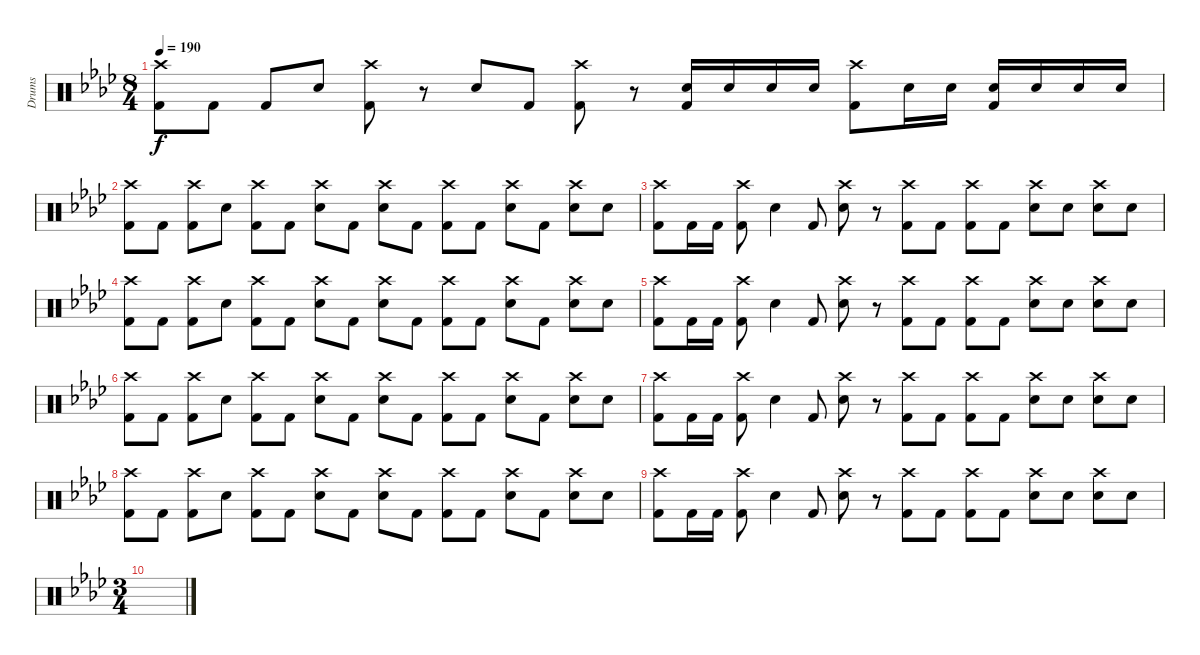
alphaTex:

\track ("Drums" "Drums") {instrument percussion}
\staff {score}
\articulation defaults
\ts (8 4)
\tempo 190
\clef neutral
\ks ab
("Crash high (hit)" "Kick (hit) 2").8{dy f} "Kick (hit) 2".8 "Kick (hit) 2".8 "Snare (hit) 2".8 ("Crash high (hit)" "Kick (hit) 2").8 r.8 "Snare (hit) 2".8 "Kick (hit) 2".8 ("Crash high (hit)" "Kick (hit) 2").8 r.8 ("Snare (hit) 2" "Kick (hit) 2").16 "Snare (hit) 2".16 "Snare (hit) 2".16 "Snare (hit) 2".16 ("Crash high (hit)" "Kick (hit) 2").8 "Snare (hit) 2".16 "Snare (hit) 2".16 ("Snare (hit) 2" "Kick (hit) 2").16 "Snare (hit) 2".16 "Snare (hit) 2".16 "Snare (hit) 2".16 |
("Crash high (hit)" "Kick (hit) 2").8 "Kick (hit) 2".8 ("Crash high (hit)" "Kick (hit) 2").8 "Snare (hit) 2".8 ("Crash high (hit)" "Kick (hit) 2").8 "Kick (hit) 2".8 ("Crash high (hit)" "Snare (hit) 2").8 "Kick (hit) 2".8 ("Crash high (hit)" "Snare (hit) 2").8 "Kick (hit) 2".8 ("Crash high (hit)" "Kick (hit) 2").8 "Kick (hit) 2".8 ("Crash high (hit)" "Snare (hit) 2").8 "Kick (hit) 2".8 ("Crash high (hit)" "Snare (hit) 2").8 "Snare (hit) 2".8 |
("Crash high (hit)" "Kick (hit) 2").8 "Kick (hit) 2".16 "Kick (hit) 2".16 ("Crash high (hit)" "Kick (hit) 2").8 "Snare (hit) 2".4 "Kick (hit) 2".8 ("Crash high (hit)" "Snare (hit) 2").8 r.8 ("Crash high (hit)" "Kick (hit) 2").8 "Kick (hit) 2".8 ("Crash high (hit)" "Kick (hit) 2").8 "Kick (hit) 2".8 ("Crash high (hit)" "Snare (hit) 2").8 "Snare (hit) 2".8 ("Crash high (hit)" "Snare (hit) 2").8 "Snare (hit) 2".8 |
("Crash high (hit)" "Kick (hit) 2").8 "Kick (hit) 2".8 ("Crash high (hit)" "Kick (hit) 2").8 "Snare (hit) 2".8 ("Crash high (hit)" "Kick (hit) 2").8 "Kick (hit) 2".8 ("Crash high (hit)" "Snare (hit) 2").8 "Kick (hit) 2".8 ("Crash high (hit)" "Snare (hit) 2").8 "Kick (hit) 2".8 ("Crash high (hit)" "Kick (hit) 2").8 "Kick (hit) 2".8 ("Crash high (hit)" "Snare (hit) 2").8 "Kick (hit) 2".8 ("Crash high (hit)" "Snare (hit) 2").8 "Snare (hit) 2".8 |
("Crash high (hit)" "Kick (hit) 2").8 "Kick (hit) 2".16 "Kick (hit) 2".16 ("Crash high (hit)" "Kick (hit) 2").8 "Snare (hit) 2".4 "Kick (hit) 2".8 ("Crash high (hit)" "Snare (hit) 2").8 r.8 ("Crash high (hit)" "Kick (hit) 2").8 "Kick (hit) 2".8 ("Crash high (hit)" "Kick (hit) 2").8 "Kick (hit) 2".8 ("Crash high (hit)" "Snare (hit) 2").8 "Snare (hit) 2".8 ("Crash high (hit)" "Snare (hit) 2").8 "Snare (hit) 2".8 |
("Crash high (hit)" "Kick (hit) 2").8 "Kick (hit) 2".8 ("Crash high (hit)" "Kick (hit) 2").8 "Snare (hit) 2".8 ("Crash high (hit)" "Kick (hit) 2").8 "Kick (hit) 2".8 ("Crash high (hit)" "Snare (hit) 2").8 "Kick (hit) 2".8 ("Crash high (hit)" "Snare (hit) 2").8 "Kick (hit) 2".8 ("Crash high (hit)" "Kick (hit) 2").8 "Kick (hit) 2".8 ("Crash high (hit)" "Snare (hit) 2").8 "Kick (hit) 2".8 ("Crash high (hit)" "Snare (hit) 2").8 "Snare (hit) 2".8 |
("Crash high (hit)" "Kick (hit) 2").8 "Kick (hit) 2".16 "Kick (hit) 2".16 ("Crash high (hit)" "Kick (hit) 2").8 "Snare (hit) 2".4 "Kick (hit) 2".8 ("Crash high (hit)" "Snare (hit) 2").8 r.8 ("Crash high (hit)" "Kick (hit) 2").8 "Kick (hit) 2".8 ("Crash high (hit)" "Kick (hit) 2").8 "Kick (hit) 2".8 ("Crash high (hit)" "Snare (hit) 2").8 "Snare (hit) 2".8 ("Crash high (hit)" "Snare (hit) 2").8 "Snare (hit) 2".8 |
("Crash high (hit)" "Kick (hit) 2").8 "Kick (hit) 2".8 ("Crash high (hit)" "Kick (hit) 2").8 "Snare (hit) 2".8 ("Crash high (hit)" "Kick (hit) 2").8 "Kick (hit) 2".8 ("Crash high (hit)" "Snare (hit) 2").8 "Kick (hit) 2".8 ("Crash high (hit)" "Snare (hit) 2").8 "Kick (hit) 2".8 ("Crash high (hit)" "Kick (hit) 2").8 "Kick (hit) 2".8 ("Crash high (hit)" "Snare (hit) 2").8 "Kick (hit) 2".8 ("Crash high (hit)" "Snare (hit) 2").8 "Snare (hit) 2".8 |
("Crash high (hit)" "Kick (hit) 2").8 "Kick (hit) 2".16 "Kick (hit) 2".16 ("Crash high (hit)" "Kick (hit) 2").8 "Snare (hit) 2".4 "Kick (hit) 2".8 ("Crash high (hit)" "Snare (hit) 2").8 r.8 ("Crash high (hit)" "Kick (hit) 2").8 "Kick (hit) 2".8 ("Crash high (hit)" "Kick (hit) 2").8 "Kick (hit) 2".8 ("Crash high (hit)" "Snare (hit) 2").8 "Snare (hit) 2".8 ("Crash high (hit)" "Snare (hit) 2").8 "Snare (hit) 2".8 |
\ts (3 4)
